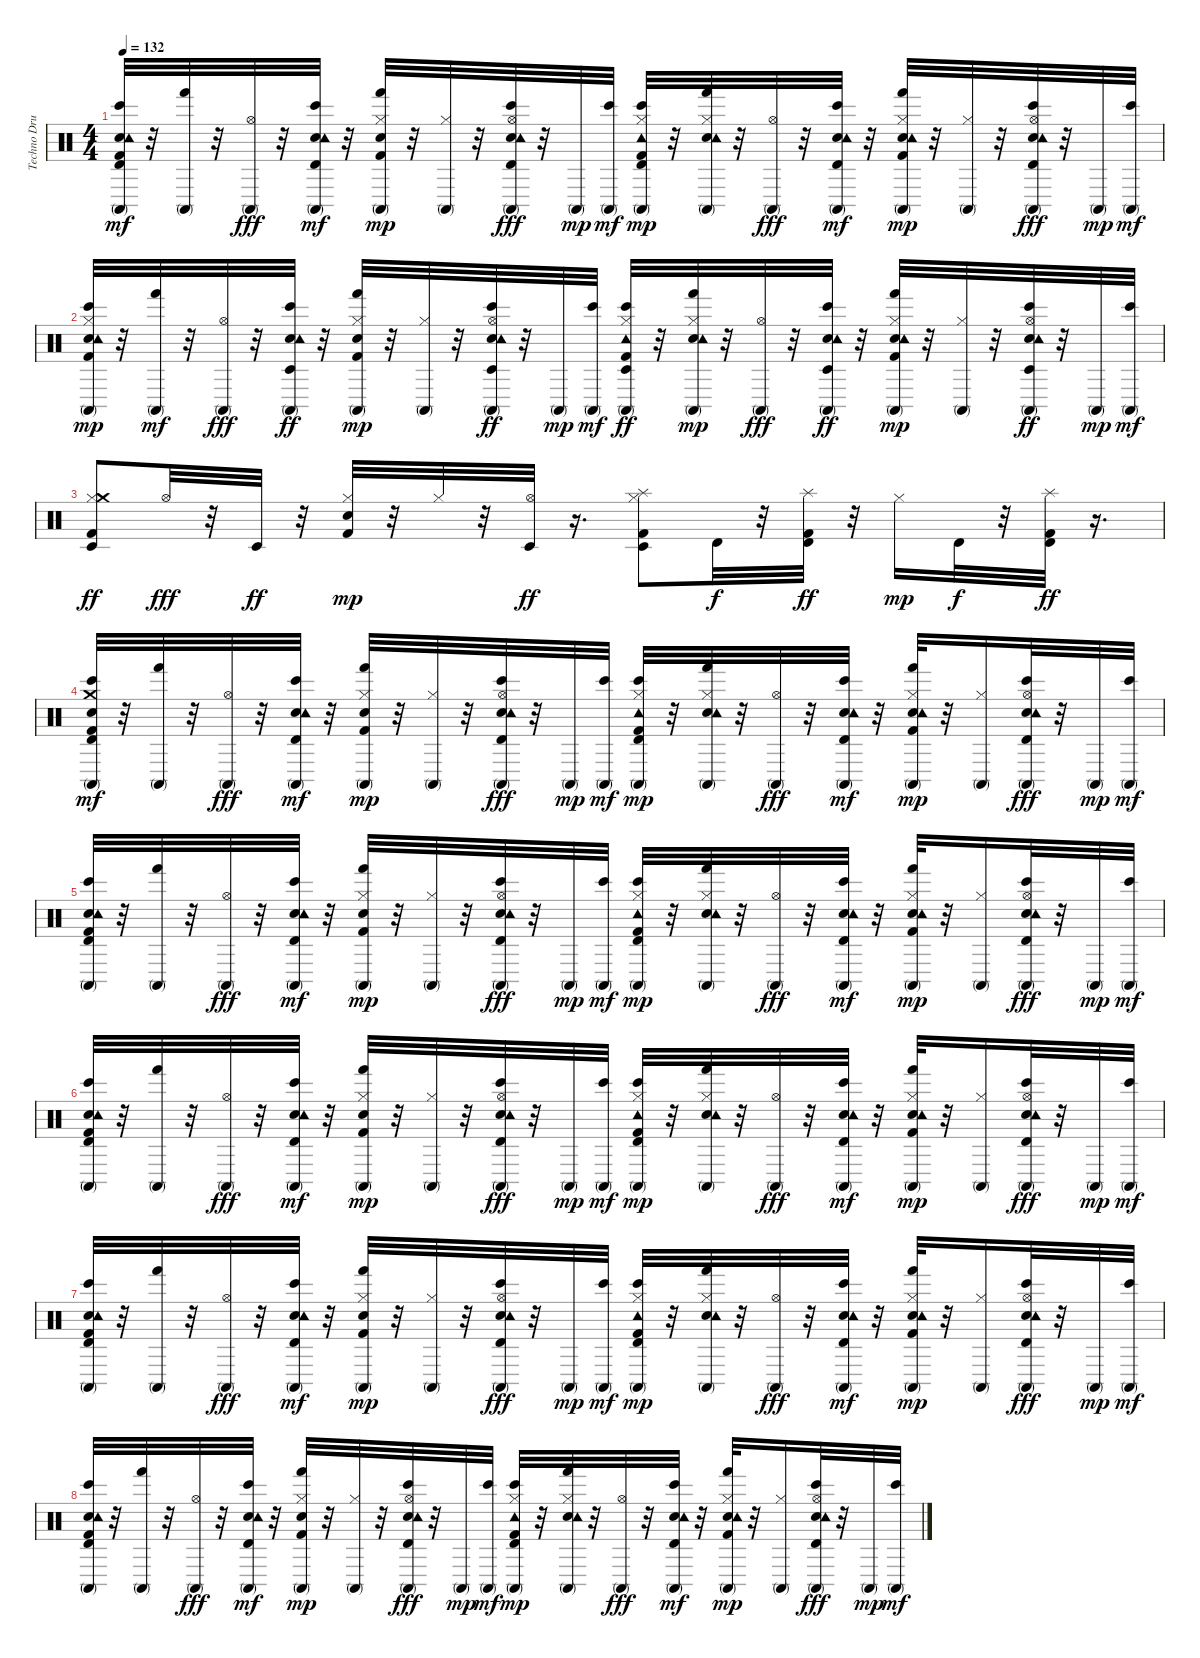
\track ("Techno Drums" "Techno Dru") {instrument percussion}
\staff {score}
\articulation defaults
\ts (4 4)
\tempo 132
\clef neutral
\ks c
("Kick (hit) 2" "Hand Clap (hit)" "Tambourine (hit)" "Conga high (mute)" "Bongo High (hit)" "Timbale high (hit)").32{dy mf} r.32 ("Conga high (mute)" "Hand (hit)").32 r.32 ("Conga high (mute)" "Hi-Hat (open)").32{dy fff} r.32 ("Hand Clap (hit)" "Tambourine (hit)" "Conga high (mute)" "Bongo High (hit)" "Timbale high (hit)").32{dy mf} r.32 ("Kick (hit) 2" "Hand Clap (hit)" "Conga high (mute)" "Hand (hit)" "Hi-Hat (closed)").32{dy mp} r.32 ("Conga high (mute)" "Hi-Hat (closed)").32 r.32 ("Hand Clap (hit)" "Tambourine (hit)" "Conga high (mute)" "Bongo High (hit)" "Timbale high (hit)" "Hi-Hat (open)").32{dy fff} r.32 "Conga high (mute)".32{dy mp} ("Conga high (mute)" "Bongo High (hit)").32{dy mf} ("Kick (hit) 2" "Tambourine (hit)" "Conga high (mute)" "Bongo High (hit)" "Timbale high (hit)" "Hi-Hat (closed)").32{dy mp} r.32 ("Hand Clap (hit)" "Tambourine (hit)" "Conga high (mute)" "Hand (hit)" "Hi-Hat (closed)").32 r.32 ("Conga high (mute)" "Hi-Hat (open)").32{dy fff} r.32 ("Hand Clap (hit)" "Tambourine (hit)" "Conga high (mute)" "Bongo High (hit)" "Timbale high (hit)").32{dy mf} r.32 ("Kick (hit) 2" "Hand Clap (hit)" "Tambourine (hit)" "Conga high (mute)" "Hand (hit)" "Hi-Hat (closed)").32{dy mp} r.32 ("Conga high (mute)" "Hi-Hat (closed)").32 r.32 ("Hand Clap (hit)" "Tambourine (hit)" "Conga high (mute)" "Bongo High (hit)" "Timbale high (hit)" "Hi-Hat (open)").32{dy fff} r.32 "Conga high (mute)".32{dy mp} ("Conga high (mute)" "Bongo High (hit)").32{dy mf} |
("Kick (hit) 2" "Hand Clap (hit)" "Tambourine (hit)" "Conga high (mute)" "Bongo High (hit)" "Hi-Hat (closed)").32{dy mp} r.32 ("Conga high (mute)" "Hand (hit)").32{dy mf} r.32 ("Conga high (mute)" "Hi-Hat (open)").32{dy fff} r.32 ("Hand Clap (hit)" "Tambourine (hit)" "Conga high (mute)" "Bongo High (hit)" "Timbale low (hit)").32{dy ff} r.32 ("Kick (hit) 2" "Hand Clap (hit)" "Conga high (mute)" "Hand (hit)" "Hi-Hat (closed)").32{dy mp} r.32 ("Conga high (mute)" "Hi-Hat (closed)").32 r.32 ("Hand Clap (hit)" "Tambourine (hit)" "Conga high (mute)" "Bongo High (hit)" "Hi-Hat (open)" "Timbale low (hit)").32{dy ff} r.32 "Conga high (mute)".32{dy mp} ("Conga high (mute)" "Bongo High (hit)").32{dy mf} ("Kick (hit) 2" "Tambourine (hit)" "Conga high (mute)" "Bongo High (hit)" "Hi-Hat (closed)" "Timbale low (hit)").32{dy ff} r.32 ("Hand Clap (hit)" "Tambourine (hit)" "Conga high (mute)" "Hand (hit)" "Hi-Hat (closed)").32{dy mp} r.32 ("Conga high (mute)" "Hi-Hat (open)").32{dy fff} r.32 ("Hand Clap (hit)" "Tambourine (hit)" "Conga high (mute)" "Bongo High (hit)" "Timbale low (hit)").32{dy ff} r.32 ("Kick (hit) 2" "Hand Clap (hit)" "Tambourine (hit)" "Conga high (mute)" "Hand (hit)" "Hi-Hat (closed)").32{dy mp} r.32 ("Conga high (mute)" "Hi-Hat (closed)").32 r.32 ("Hand Clap (hit)" "Tambourine (hit)" "Conga high (mute)" "Bongo High (hit)" "Hi-Hat (open)" "Timbale low (hit)").32{dy ff} r.32 "Conga high (mute)".32{dy mp} ("Conga high (mute)" "Bongo High (hit)").32{dy mf} |
("Kick (hit) 2" "Hi-Hat (closed)" "Timbale low (hit)" "Crash medium (hit)").8{dy ff} "Hi-Hat (open)".32{dy fff} r.32 "Timbale low (hit)".32{dy ff} r.32 ("Kick (hit) 2" "Hand Clap (hit)" "Hi-Hat (closed)").32{dy mp} r.32 "Hi-Hat (closed)".32 r.32 ("Hi-Hat (open)" "Timbale low (hit)").32{dy ff} r.16{d} ("Hi-Hat (closed)" "Timbale low (hit)" "Kick (hit) 2" "Splash (hit)").8 "Timbale high (hit)".32{dy f} r.32 ("Timbale high (hit)" "Kick (hit) 2" "Splash (hit)").32{dy ff} r.32 "Hi-Hat (closed)".16{dy mp} "Timbale high (hit)".32{dy f} r.32 ("Timbale high (hit)" "Kick (hit) 2" "Splash (hit)").32{dy ff} r.16{d} |
("Kick (hit) 2" "Hand Clap (hit)" "Crash medium (hit)" "Conga high (mute)" "Bongo High (hit)" "Timbale high (hit)").32{dy mf} r.32 ("Conga high (mute)" "Hand (hit)").32 r.32 ("Conga high (mute)" "Hi-Hat (open)").32{dy fff} r.32 ("Hand Clap (hit)" "Tambourine (hit)" "Conga high (mute)" "Bongo High (hit)" "Timbale high (hit)").32{dy mf} r.32 ("Kick (hit) 2" "Hand Clap (hit)" "Conga high (mute)" "Hand (hit)" "Hi-Hat (closed)").32{dy mp} r.32 ("Conga high (mute)" "Hi-Hat (closed)").32 r.32 ("Hand Clap (hit)" "Tambourine (hit)" "Conga high (mute)" "Bongo High (hit)" "Timbale high (hit)" "Hi-Hat (open)").32{dy fff} r.32 "Conga high (mute)".32{dy mp} ("Conga high (mute)" "Bongo High (hit)").32{dy mf} ("Kick (hit) 2" "Tambourine (hit)" "Conga high (mute)" "Bongo High (hit)" "Timbale high (hit)" "Hi-Hat (closed)").32{dy mp} r.32 ("Hand Clap (hit)" "Tambourine (hit)" "Conga high (mute)" "Hand (hit)" "Hi-Hat (closed)").32 r.32 ("Conga high (mute)" "Hi-Hat (open)").32{dy fff} r.32 ("Hand Clap (hit)" "Tambourine (hit)" "Conga high (mute)" "Bongo High (hit)" "Timbale high (hit)").32{dy mf} r.32 ("Kick (hit) 2" "Hand Clap (hit)" "Tambourine (hit)" "Conga high (mute)" "Hand (hit)" "Hi-Hat (closed)").32{dy mp} r.32 ("Conga high (mute)" "Hi-Hat (closed)").16 ("Hand Clap (hit)" "Tambourine (hit)" "Conga high (mute)" "Bongo High (hit)" "Timbale high (hit)" "Hi-Hat (open)").32{dy fff} r.32 "Conga high (mute)".32{dy mp} ("Conga high (mute)" "Bongo High (hit)").32{dy mf} |
("Kick (hit) 2" "Hand Clap (hit)" "Tambourine (hit)" "Conga high (mute)" "Bongo High (hit)" "Timbale high (hit)").32 r.32 ("Conga high (mute)" "Hand (hit)").32 r.32 ("Conga high (mute)" "Hi-Hat (open)").32{dy fff} r.32 ("Hand Clap (hit)" "Tambourine (hit)" "Conga high (mute)" "Bongo High (hit)" "Timbale high (hit)").32{dy mf} r.32 ("Kick (hit) 2" "Hand Clap (hit)" "Conga high (mute)" "Hand (hit)" "Hi-Hat (closed)").32{dy mp} r.32 ("Conga high (mute)" "Hi-Hat (closed)").32 r.32 ("Hand Clap (hit)" "Tambourine (hit)" "Conga high (mute)" "Bongo High (hit)" "Timbale high (hit)" "Hi-Hat (open)").32{dy fff} r.32 "Conga high (mute)".32{dy mp} ("Conga high (mute)" "Bongo High (hit)").32{dy mf} ("Kick (hit) 2" "Tambourine (hit)" "Conga high (mute)" "Bongo High (hit)" "Timbale high (hit)" "Hi-Hat (closed)").32{dy mp} r.32 ("Hand Clap (hit)" "Tambourine (hit)" "Conga high (mute)" "Hand (hit)" "Hi-Hat (closed)").32 r.32 ("Conga high (mute)" "Hi-Hat (open)").32{dy fff} r.32 ("Hand Clap (hit)" "Tambourine (hit)" "Conga high (mute)" "Bongo High (hit)" "Timbale high (hit)").32{dy mf} r.32 ("Kick (hit) 2" "Hand Clap (hit)" "Tambourine (hit)" "Conga high (mute)" "Hand (hit)" "Hi-Hat (closed)").32{dy mp} r.32 ("Conga high (mute)" "Hi-Hat (closed)").16 ("Hand Clap (hit)" "Tambourine (hit)" "Conga high (mute)" "Bongo High (hit)" "Timbale high (hit)" "Hi-Hat (open)").32{dy fff} r.32 "Conga high (mute)".32{dy mp} ("Conga high (mute)" "Bongo High (hit)").32{dy mf} |
("Kick (hit) 2" "Hand Clap (hit)" "Tambourine (hit)" "Conga high (mute)" "Bongo High (hit)" "Timbale high (hit)").32 r.32 ("Conga high (mute)" "Hand (hit)").32 r.32 ("Conga high (mute)" "Hi-Hat (open)").32{dy fff} r.32 ("Hand Clap (hit)" "Tambourine (hit)" "Conga high (mute)" "Bongo High (hit)" "Timbale high (hit)").32{dy mf} r.32 ("Kick (hit) 2" "Hand Clap (hit)" "Conga high (mute)" "Hand (hit)" "Hi-Hat (closed)").32{dy mp} r.32 ("Conga high (mute)" "Hi-Hat (closed)").32 r.32 ("Hand Clap (hit)" "Tambourine (hit)" "Conga high (mute)" "Bongo High (hit)" "Timbale high (hit)" "Hi-Hat (open)").32{dy fff} r.32 "Conga high (mute)".32{dy mp} ("Conga high (mute)" "Bongo High (hit)").32{dy mf} ("Kick (hit) 2" "Tambourine (hit)" "Conga high (mute)" "Bongo High (hit)" "Timbale high (hit)" "Hi-Hat (closed)").32{dy mp} r.32 ("Hand Clap (hit)" "Tambourine (hit)" "Conga high (mute)" "Hand (hit)" "Hi-Hat (closed)").32 r.32 ("Conga high (mute)" "Hi-Hat (open)").32{dy fff} r.32 ("Hand Clap (hit)" "Tambourine (hit)" "Conga high (mute)" "Bongo High (hit)" "Timbale high (hit)").32{dy mf} r.32 ("Kick (hit) 2" "Hand Clap (hit)" "Tambourine (hit)" "Conga high (mute)" "Hand (hit)" "Hi-Hat (closed)").32{dy mp} r.32 ("Conga high (mute)" "Hi-Hat (closed)").16 ("Hand Clap (hit)" "Tambourine (hit)" "Conga high (mute)" "Bongo High (hit)" "Timbale high (hit)" "Hi-Hat (open)").32{dy fff} r.32 "Conga high (mute)".32{dy mp} ("Conga high (mute)" "Bongo High (hit)").32{dy mf} |
("Kick (hit) 2" "Hand Clap (hit)" "Tambourine (hit)" "Conga high (mute)" "Bongo High (hit)" "Timbale high (hit)").32 r.32 ("Conga high (mute)" "Hand (hit)").32 r.32 ("Conga high (mute)" "Hi-Hat (open)").32{dy fff} r.32 ("Hand Clap (hit)" "Tambourine (hit)" "Conga high (mute)" "Bongo High (hit)" "Timbale high (hit)").32{dy mf} r.32 ("Kick (hit) 2" "Hand Clap (hit)" "Conga high (mute)" "Hand (hit)" "Hi-Hat (closed)").32{dy mp} r.32 ("Conga high (mute)" "Hi-Hat (closed)").32 r.32 ("Hand Clap (hit)" "Tambourine (hit)" "Conga high (mute)" "Bongo High (hit)" "Timbale high (hit)" "Hi-Hat (open)").32{dy fff} r.32 "Conga high (mute)".32{dy mp} ("Conga high (mute)" "Bongo High (hit)").32{dy mf} ("Kick (hit) 2" "Tambourine (hit)" "Conga high (mute)" "Bongo High (hit)" "Timbale high (hit)" "Hi-Hat (closed)").32{dy mp} r.32 ("Hand Clap (hit)" "Tambourine (hit)" "Conga high (mute)" "Hand (hit)" "Hi-Hat (closed)").32 r.32 ("Conga high (mute)" "Hi-Hat (open)").32{dy fff} r.32 ("Hand Clap (hit)" "Tambourine (hit)" "Conga high (mute)" "Bongo High (hit)" "Timbale high (hit)").32{dy mf} r.32 ("Kick (hit) 2" "Hand Clap (hit)" "Tambourine (hit)" "Conga high (mute)" "Hand (hit)" "Hi-Hat (closed)").32{dy mp} r.32 ("Conga high (mute)" "Hi-Hat (closed)").16 ("Hand Clap (hit)" "Tambourine (hit)" "Conga high (mute)" "Bongo High (hit)" "Timbale high (hit)" "Hi-Hat (open)").32{dy fff} r.32 "Conga high (mute)".32{dy mp} ("Conga high (mute)" "Bongo High (hit)").32{dy mf} |
("Kick (hit) 2" "Hand Clap (hit)" "Tambourine (hit)" "Conga high (mute)" "Bongo High (hit)" "Timbale high (hit)").32 r.32 ("Conga high (mute)" "Hand (hit)").32 r.32 ("Conga high (mute)" "Hi-Hat (open)").32{dy fff} r.32 ("Hand Clap (hit)" "Tambourine (hit)" "Conga high (mute)" "Bongo High (hit)" "Timbale high (hit)").32{dy mf} r.32 ("Kick (hit) 2" "Hand Clap (hit)" "Conga high (mute)" "Hand (hit)" "Hi-Hat (closed)").32{dy mp} r.32 ("Conga high (mute)" "Hi-Hat (closed)").32 r.32 ("Hand Clap (hit)" "Tambourine (hit)" "Conga high (mute)" "Bongo High (hit)" "Timbale high (hit)" "Hi-Hat (open)").32{dy fff} r.32 "Conga high (mute)".32{dy mp} ("Conga high (mute)" "Bongo High (hit)").32{dy mf} ("Kick (hit) 2" "Tambourine (hit)" "Conga high (mute)" "Bongo High (hit)" "Timbale high (hit)" "Hi-Hat (closed)").32{dy mp} r.32 ("Hand Clap (hit)" "Tambourine (hit)" "Conga high (mute)" "Hand (hit)" "Hi-Hat (closed)").32 r.32 ("Conga high (mute)" "Hi-Hat (open)").32{dy fff} r.32 ("Hand Clap (hit)" "Tambourine (hit)" "Conga high (mute)" "Bongo High (hit)" "Timbale high (hit)").32{dy mf} r.32 ("Kick (hit) 2" "Hand Clap (hit)" "Tambourine (hit)" "Conga high (mute)" "Hand (hit)" "Hi-Hat (closed)").32{dy mp} r.32 ("Conga high (mute)" "Hi-Hat (closed)").16 ("Hand Clap (hit)" "Tambourine (hit)" "Conga high (mute)" "Bongo High (hit)" "Timbale high (hit)" "Hi-Hat (open)").32{dy fff} r.32 "Conga high (mute)".32{dy mp} ("Conga high (mute)" "Bongo High (hit)").32{dy mf}
